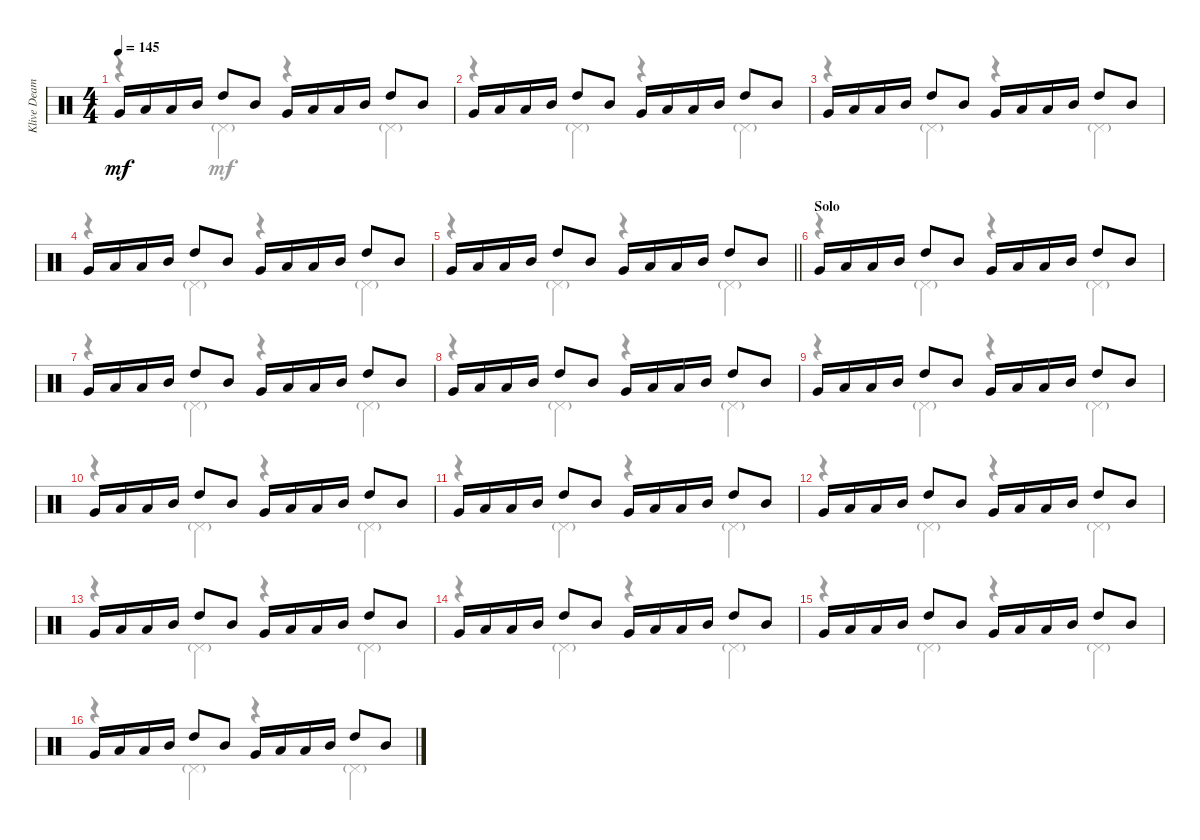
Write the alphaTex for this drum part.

\track ("Klive Deamer" "Klive Deam") {instrument percussion}
\staff {score}
\articulation defaults
\voice
\ts (4 4)
\tempo 145
\clef neutral
\ks c "Very Low Tom (hit)".16{dy mf} "Low Tom (hit)".16 "Low Tom (hit)".16 "Mid Tom (hit)".16 "High Tom (hit)".8 "Mid Tom (hit)".8 "Very Low Tom (hit)".16 "Low Tom (hit)".16 "Low Tom (hit)".16 "Mid Tom (hit)".16 "High Tom (hit)".8 "Mid Tom (hit)".8
|
"Very Low Tom (hit)".16 "Low Tom (hit)".16 "Low Tom (hit)".16 "Mid Tom (hit)".16 "High Tom (hit)".8 "Mid Tom (hit)".8 "Very Low Tom (hit)".16 "Low Tom (hit)".16 "Low Tom (hit)".16 "Mid Tom (hit)".16 "High Tom (hit)".8 "Mid Tom (hit)".8 |
"Very Low Tom (hit)".16 "Low Tom (hit)".16 "Low Tom (hit)".16 "Mid Tom (hit)".16 "High Tom (hit)".8 "Mid Tom (hit)".8 "Very Low Tom (hit)".16 "Low Tom (hit)".16 "Low Tom (hit)".16 "Mid Tom (hit)".16 "High Tom (hit)".8 "Mid Tom (hit)".8 |
"Very Low Tom (hit)".16 "Low Tom (hit)".16 "Low Tom (hit)".16 "Mid Tom (hit)".16 "High Tom (hit)".8 "Mid Tom (hit)".8 "Very Low Tom (hit)".16 "Low Tom (hit)".16 "Low Tom (hit)".16 "Mid Tom (hit)".16 "High Tom (hit)".8 "Mid Tom (hit)".8 |
\barLineRight lightlight "Very Low Tom (hit)".16 "Low Tom (hit)".16 "Low Tom (hit)".16 "Mid Tom (hit)".16 "High Tom (hit)".8 "Mid Tom (hit)".8 "Very Low Tom (hit)".16 "Low Tom (hit)".16 "Low Tom (hit)".16 "Mid Tom (hit)".16 "High Tom (hit)".8 "Mid Tom (hit)".8
|
\section ("" "Solo")
"Very Low Tom (hit)".16 "Low Tom (hit)".16 "Low Tom (hit)".16 "Mid Tom (hit)".16 "High Tom (hit)".8 "Mid Tom (hit)".8 "Very Low Tom (hit)".16 "Low Tom (hit)".16 "Low Tom (hit)".16 "Mid Tom (hit)".16 "High Tom (hit)".8 "Mid Tom (hit)".8 |
"Very Low Tom (hit)".16 "Low Tom (hit)".16 "Low Tom (hit)".16 "Mid Tom (hit)".16 "High Tom (hit)".8 "Mid Tom (hit)".8 "Very Low Tom (hit)".16 "Low Tom (hit)".16 "Low Tom (hit)".16 "Mid Tom (hit)".16 "High Tom (hit)".8 "Mid Tom (hit)".8 |
"Very Low Tom (hit)".16 "Low Tom (hit)".16 "Low Tom (hit)".16 "Mid Tom (hit)".16 "High Tom (hit)".8 "Mid Tom (hit)".8 "Very Low Tom (hit)".16 "Low Tom (hit)".16 "Low Tom (hit)".16 "Mid Tom (hit)".16 "High Tom (hit)".8 "Mid Tom (hit)".8 |
"Very Low Tom (hit)".16 "Low Tom (hit)".16 "Low Tom (hit)".16 "Mid Tom (hit)".16 "High Tom (hit)".8 "Mid Tom (hit)".8 "Very Low Tom (hit)".16 "Low Tom (hit)".16 "Low Tom (hit)".16 "Mid Tom (hit)".16 "High Tom (hit)".8 "Mid Tom (hit)".8 |
"Very Low Tom (hit)".16 "Low Tom (hit)".16 "Low Tom (hit)".16 "Mid Tom (hit)".16 "High Tom (hit)".8 "Mid Tom (hit)".8 "Very Low Tom (hit)".16 "Low Tom (hit)".16 "Low Tom (hit)".16 "Mid Tom (hit)".16 "High Tom (hit)".8 "Mid Tom (hit)".8 |
"Very Low Tom (hit)".16 "Low Tom (hit)".16 "Low Tom (hit)".16 "Mid Tom (hit)".16 "High Tom (hit)".8 "Mid Tom (hit)".8 "Very Low Tom (hit)".16 "Low Tom (hit)".16 "Low Tom (hit)".16 "Mid Tom (hit)".16 "High Tom (hit)".8 "Mid Tom (hit)".8 |
"Very Low Tom (hit)".16 "Low Tom (hit)".16 "Low Tom (hit)".16 "Mid Tom (hit)".16 "High Tom (hit)".8 "Mid Tom (hit)".8 "Very Low Tom (hit)".16 "Low Tom (hit)".16 "Low Tom (hit)".16 "Mid Tom (hit)".16 "High Tom (hit)".8 "Mid Tom (hit)".8 |
"Very Low Tom (hit)".16 "Low Tom (hit)".16 "Low Tom (hit)".16 "Mid Tom (hit)".16 "High Tom (hit)".8 "Mid Tom (hit)".8 "Very Low Tom (hit)".16 "Low Tom (hit)".16 "Low Tom (hit)".16 "Mid Tom (hit)".16 "High Tom (hit)".8 "Mid Tom (hit)".8 |
"Very Low Tom (hit)".16 "Low Tom (hit)".16 "Low Tom (hit)".16 "Mid Tom (hit)".16 "High Tom (hit)".8 "Mid Tom (hit)".8 "Very Low Tom (hit)".16 "Low Tom (hit)".16 "Low Tom (hit)".16 "Mid Tom (hit)".16 "High Tom (hit)".8 "Mid Tom (hit)".8 |
"Very Low Tom (hit)".16 "Low Tom (hit)".16 "Low Tom (hit)".16 "Mid Tom (hit)".16 "High Tom (hit)".8 "Mid Tom (hit)".8 "Very Low Tom (hit)".16 "Low Tom (hit)".16 "Low Tom (hit)".16 "Mid Tom (hit)".16 "High Tom (hit)".8 "Mid Tom (hit)".8 |
"Very Low Tom (hit)".16 "Low Tom (hit)".16 "Low Tom (hit)".16 "Mid Tom (hit)".16 "High Tom (hit)".8 "Mid Tom (hit)".8 "Very Low Tom (hit)".16 "Low Tom (hit)".16 "Low Tom (hit)".16 "Mid Tom (hit)".16 "High Tom (hit)".8 "Mid Tom (hit)".8
\voice
\clef neutral
\ottava regular
\simile none
\ks c
r.4{dy mf} "Pedal Hi-Hat (hit)"{g}.4 r.4 "Pedal Hi-Hat (hit)"{g}.4 |
r.4 "Pedal Hi-Hat (hit)"{g}.4 r.4 "Pedal Hi-Hat (hit)"{g}.4 |
r.4 "Pedal Hi-Hat (hit)"{g}.4 r.4 "Pedal Hi-Hat (hit)"{g}.4 |
r.4 "Pedal Hi-Hat (hit)"{g}.4 r.4 "Pedal Hi-Hat (hit)"{g}.4 |
\barLineRight lightlight
r.4 "Pedal Hi-Hat (hit)"{g}.4 r.4 "Pedal Hi-Hat (hit)"{g}.4 |
r.4 "Pedal Hi-Hat (hit)"{g}.4 r.4 "Pedal Hi-Hat (hit)"{g}.4 |
r.4 "Pedal Hi-Hat (hit)"{g}.4 r.4 "Pedal Hi-Hat (hit)"{g}.4 |
r.4 "Pedal Hi-Hat (hit)"{g}.4 r.4 "Pedal Hi-Hat (hit)"{g}.4 |
r.4 "Pedal Hi-Hat (hit)"{g}.4 r.4 "Pedal Hi-Hat (hit)"{g}.4 |
r.4 "Pedal Hi-Hat (hit)"{g}.4 r.4 "Pedal Hi-Hat (hit)"{g}.4 |
r.4 "Pedal Hi-Hat (hit)"{g}.4 r.4 "Pedal Hi-Hat (hit)"{g}.4 |
r.4 "Pedal Hi-Hat (hit)"{g}.4 r.4 "Pedal Hi-Hat (hit)"{g}.4 |
r.4 "Pedal Hi-Hat (hit)"{g}.4 r.4 "Pedal Hi-Hat (hit)"{g}.4 |
r.4 "Pedal Hi-Hat (hit)"{g}.4 r.4 "Pedal Hi-Hat (hit)"{g}.4 |
r.4 "Pedal Hi-Hat (hit)"{g}.4 r.4 "Pedal Hi-Hat (hit)"{g}.4 |
r.4 "Pedal Hi-Hat (hit)"{g}.4 r.4 "Pedal Hi-Hat (hit)"{g}.4
